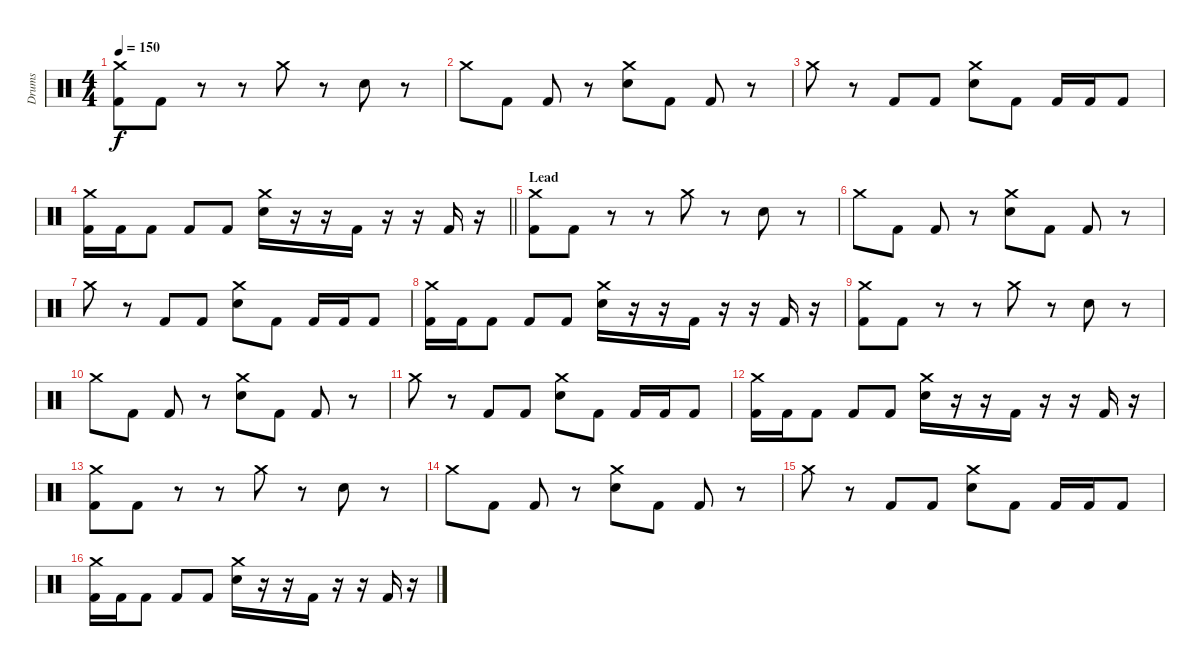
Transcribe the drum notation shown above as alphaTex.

\track ("Drums" "Drums") {instrument percussion}
\staff {score}
\articulation defaults
\ts (4 4)
\tempo 150
\clef neutral
\ks c
("Crash medium (hit)" "Kick (hit) 2").8{dy f} "Kick (hit) 2".8 r.8 r.8 "Crash medium (hit)".8 r.8 "Electric Snare (hit)".8 r.8 |
"Crash medium (hit)".8 "Kick (hit) 2".8 "Kick (hit) 2".8 r.8 ("Crash medium (hit)" "Electric Snare (hit)").8 "Kick (hit) 2".8 "Kick (hit) 2".8 r.8 |
"Crash medium (hit)".8 r.8 "Kick (hit) 2".8 "Kick (hit) 2".8 ("Crash medium (hit)" "Electric Snare (hit)").8 "Kick (hit) 2".8 "Kick (hit) 2".16 "Kick (hit) 2".16 "Kick (hit) 2".8 |
\barLineRight lightlight
("Crash medium (hit)" "Kick (hit) 2").16 "Kick (hit) 2".16 "Kick (hit) 2".8 "Kick (hit) 2".8 "Kick (hit) 2".8 ("Crash medium (hit)" "Electric Snare (hit)").16 r.16 r.16 "Kick (hit) 2".16 r.16 r.16 "Kick (hit) 2".16 r.16 |
\section ("" "Lead")
("Crash medium (hit)" "Kick (hit) 2").8 "Kick (hit) 2".8 r.8 r.8 "Crash medium (hit)".8 r.8 "Electric Snare (hit)".8 r.8 |
"Crash medium (hit)".8 "Kick (hit) 2".8 "Kick (hit) 2".8 r.8 ("Crash medium (hit)" "Electric Snare (hit)").8 "Kick (hit) 2".8 "Kick (hit) 2".8 r.8 |
"Crash medium (hit)".8 r.8 "Kick (hit) 2".8 "Kick (hit) 2".8 ("Crash medium (hit)" "Electric Snare (hit)").8 "Kick (hit) 2".8 "Kick (hit) 2".16 "Kick (hit) 2".16 "Kick (hit) 2".8 |
("Crash medium (hit)" "Kick (hit) 2").16 "Kick (hit) 2".16 "Kick (hit) 2".8 "Kick (hit) 2".8 "Kick (hit) 2".8 ("Crash medium (hit)" "Electric Snare (hit)").16 r.16 r.16 "Kick (hit) 2".16 r.16 r.16 "Kick (hit) 2".16 r.16 |
("Crash medium (hit)" "Kick (hit) 2").8 "Kick (hit) 2".8 r.8 r.8 "Crash medium (hit)".8 r.8 "Electric Snare (hit)".8 r.8 |
"Crash medium (hit)".8 "Kick (hit) 2".8 "Kick (hit) 2".8 r.8 ("Crash medium (hit)" "Electric Snare (hit)").8 "Kick (hit) 2".8 "Kick (hit) 2".8 r.8 |
"Crash medium (hit)".8 r.8 "Kick (hit) 2".8 "Kick (hit) 2".8 ("Crash medium (hit)" "Electric Snare (hit)").8 "Kick (hit) 2".8 "Kick (hit) 2".16 "Kick (hit) 2".16 "Kick (hit) 2".8 |
("Crash medium (hit)" "Kick (hit) 2").16 "Kick (hit) 2".16 "Kick (hit) 2".8 "Kick (hit) 2".8 "Kick (hit) 2".8 ("Crash medium (hit)" "Electric Snare (hit)").16 r.16 r.16 "Kick (hit) 2".16 r.16 r.16 "Kick (hit) 2".16 r.16 |
("Crash medium (hit)" "Kick (hit) 2").8 "Kick (hit) 2".8 r.8 r.8 "Crash medium (hit)".8 r.8 "Electric Snare (hit)".8 r.8 |
"Crash medium (hit)".8 "Kick (hit) 2".8 "Kick (hit) 2".8 r.8 ("Crash medium (hit)" "Electric Snare (hit)").8 "Kick (hit) 2".8 "Kick (hit) 2".8 r.8 |
"Crash medium (hit)".8 r.8 "Kick (hit) 2".8 "Kick (hit) 2".8 ("Crash medium (hit)" "Electric Snare (hit)").8 "Kick (hit) 2".8 "Kick (hit) 2".16 "Kick (hit) 2".16 "Kick (hit) 2".8 |
("Crash medium (hit)" "Kick (hit) 2").16 "Kick (hit) 2".16 "Kick (hit) 2".8 "Kick (hit) 2".8 "Kick (hit) 2".8 ("Crash medium (hit)" "Electric Snare (hit)").16 r.16 r.16 "Kick (hit) 2".16 r.16 r.16 "Kick (hit) 2".16 r.16
